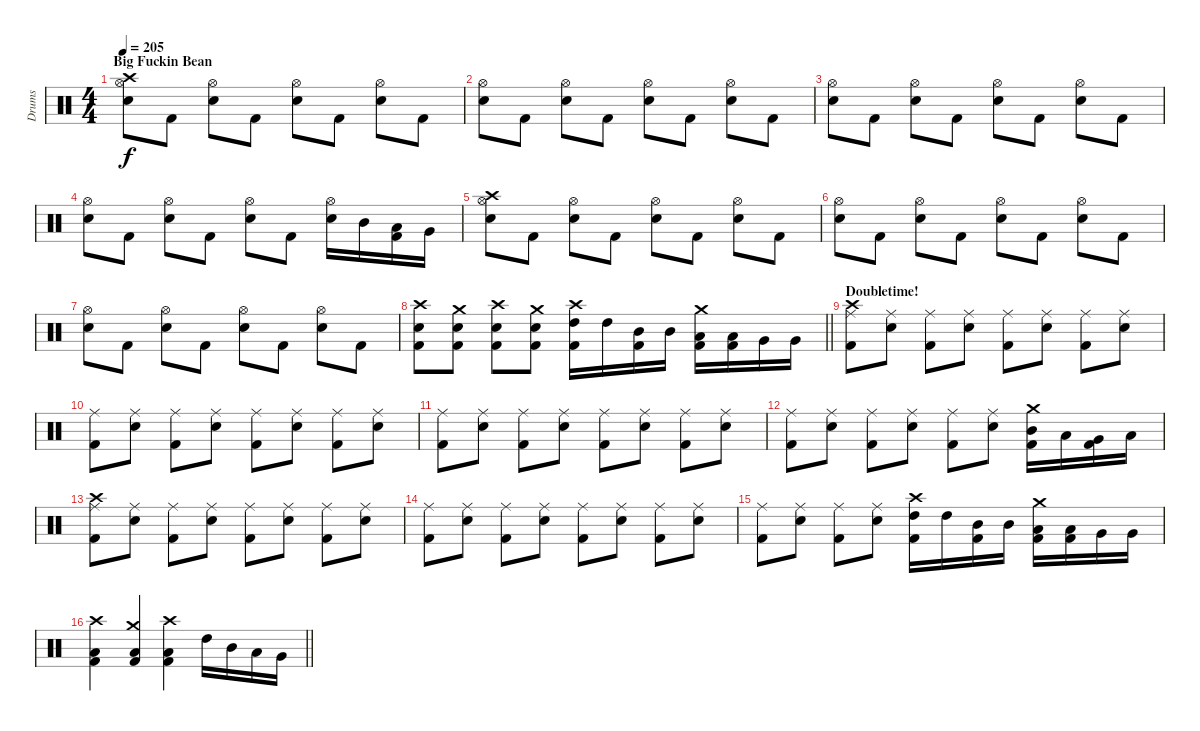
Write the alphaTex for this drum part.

\track ("Drums" "Drums") {instrument percussion}
\staff {score}
\articulation defaults
\ts (4 4)
\section ("" "Big Fuckin Bean")
\tempo 205
\clef neutral
\ks c
("Crash high (hit)" "Hi-Hat (open)" "Snare (hit) 2").8{dy f} "Kick (hit) 2".8 ("Hi-Hat (open)" "Snare (hit) 2").8 "Kick (hit) 2".8 ("Hi-Hat (open)" "Snare (hit) 2").8 "Kick (hit) 2".8 ("Hi-Hat (open)" "Snare (hit) 2").8 "Kick (hit) 2".8 |
("Hi-Hat (open)" "Snare (hit) 2").8 "Kick (hit) 2".8 ("Hi-Hat (open)" "Snare (hit) 2").8 "Kick (hit) 2".8 ("Hi-Hat (open)" "Snare (hit) 2").8 "Kick (hit) 2".8 ("Hi-Hat (open)" "Snare (hit) 2").8 "Kick (hit) 2".8 |
("Hi-Hat (open)" "Snare (hit) 2").8 "Kick (hit) 2".8 ("Hi-Hat (open)" "Snare (hit) 2").8 "Kick (hit) 2".8 ("Hi-Hat (open)" "Snare (hit) 2").8 "Kick (hit) 2".8 ("Hi-Hat (open)" "Snare (hit) 2").8 "Kick (hit) 2".8 |
("Hi-Hat (open)" "Snare (hit) 2").8 "Kick (hit) 2".8 ("Hi-Hat (open)" "Snare (hit) 2").8 "Kick (hit) 2".8 ("Hi-Hat (open)" "Snare (hit) 2").8 "Kick (hit) 2".8 ("Hi-Hat (open)" "Snare (hit) 2").16 "Mid Tom (hit)".16 ("Low Tom (hit)" "Kick (hit) 2").16 "Very Low Tom (hit)".16 |
("Crash high (hit)" "Hi-Hat (open)" "Snare (hit) 2").8 "Kick (hit) 2".8 ("Hi-Hat (open)" "Snare (hit) 2").8 "Kick (hit) 2".8 ("Hi-Hat (open)" "Snare (hit) 2").8 "Kick (hit) 2".8 ("Hi-Hat (open)" "Snare (hit) 2").8 "Kick (hit) 2".8 |
("Hi-Hat (open)" "Snare (hit) 2").8 "Kick (hit) 2".8 ("Hi-Hat (open)" "Snare (hit) 2").8 "Kick (hit) 2".8 ("Hi-Hat (open)" "Snare (hit) 2").8 "Kick (hit) 2".8 ("Hi-Hat (open)" "Snare (hit) 2").8 "Kick (hit) 2".8 |
("Hi-Hat (open)" "Snare (hit) 2").8 "Kick (hit) 2".8 ("Hi-Hat (open)" "Snare (hit) 2").8 "Kick (hit) 2".8 ("Hi-Hat (open)" "Snare (hit) 2").8 "Kick (hit) 2".8 ("Hi-Hat (open)" "Snare (hit) 2").8 "Kick (hit) 2".8 |
\barLineRight lightlight
("Crash high (hit)" "Snare (hit) 2" "Kick (hit) 2").8 ("Crash medium (hit)" "Snare (hit) 2" "Kick (hit) 2").8 ("Crash high (hit)" "Snare (hit) 2" "Kick (hit) 2").8 ("Crash medium (hit)" "Snare (hit) 2" "Kick (hit) 2").8 ("Crash high (hit)" "High Tom (hit)" "Kick (hit) 2").16 "High Tom (hit)".16 ("Mid Tom (hit)" "Kick (hit) 2").16 "Mid Tom (hit)".16 ("Crash medium (hit)" "Low Tom (hit)" "Kick (hit) 2").16 ("Low Tom (hit)" "Kick (hit) 2").16 "Very Low Tom (hit)".16 "Very Low Tom (hit)".16 |
\section ("" "Doubletime!")
("Crash high (hit)" "Ride (middle)" "Kick (hit) 2").8 ("Ride (middle)" "Snare (hit) 2").8 ("Ride (middle)" "Kick (hit) 2").8 ("Ride (middle)" "Snare (hit) 2").8 ("Ride (middle)" "Kick (hit) 2").8 ("Ride (middle)" "Snare (hit) 2").8 ("Ride (middle)" "Kick (hit) 2").8 ("Ride (middle)" "Snare (hit) 2").8 |
("Ride (middle)" "Kick (hit) 2").8 ("Ride (middle)" "Snare (hit) 2").8 ("Ride (middle)" "Kick (hit) 2").8 ("Ride (middle)" "Snare (hit) 2").8 ("Ride (middle)" "Kick (hit) 2").8 ("Ride (middle)" "Snare (hit) 2").8 ("Ride (middle)" "Kick (hit) 2").8 ("Ride (middle)" "Snare (hit) 2").8 |
("Ride (middle)" "Kick (hit) 2").8 ("Ride (middle)" "Snare (hit) 2").8 ("Ride (middle)" "Kick (hit) 2").8 ("Ride (middle)" "Snare (hit) 2").8 ("Ride (middle)" "Kick (hit) 2").8 ("Ride (middle)" "Snare (hit) 2").8 ("Ride (middle)" "Kick (hit) 2").8 ("Ride (middle)" "Snare (hit) 2").8 |
("Ride (middle)" "Kick (hit) 2").8 ("Ride (middle)" "Snare (hit) 2").8 ("Ride (middle)" "Kick (hit) 2").8 ("Ride (middle)" "Snare (hit) 2").8 ("Ride (middle)" "Kick (hit) 2").8 ("Ride (middle)" "Snare (hit) 2").8 ("Crash medium (hit)" "Mid Tom (hit)" "Kick (hit) 2").16 "Low Tom (hit)".16 ("Very Low Tom (hit)" "Kick (hit) 2").16 "Low Floor Tom (hit)".16 |
("Crash high (hit)" "Ride (middle)" "Kick (hit) 2").8 ("Ride (middle)" "Snare (hit) 2").8 ("Ride (middle)" "Kick (hit) 2").8 ("Ride (middle)" "Snare (hit) 2").8 ("Ride (middle)" "Kick (hit) 2").8 ("Ride (middle)" "Snare (hit) 2").8 ("Ride (middle)" "Kick (hit) 2").8 ("Ride (middle)" "Snare (hit) 2").8 |
("Ride (middle)" "Kick (hit) 2").8 ("Ride (middle)" "Snare (hit) 2").8 ("Ride (middle)" "Kick (hit) 2").8 ("Ride (middle)" "Snare (hit) 2").8 ("Ride (middle)" "Kick (hit) 2").8 ("Ride (middle)" "Snare (hit) 2").8 ("Ride (middle)" "Kick (hit) 2").8 ("Ride (middle)" "Snare (hit) 2").8 |
("Ride (middle)" "Kick (hit) 2").8 ("Ride (middle)" "Snare (hit) 2").8 ("Ride (middle)" "Kick (hit) 2").8 ("Ride (middle)" "Snare (hit) 2").8 ("Crash high (hit)" "High Tom (hit)" "Kick (hit) 2").16 "High Tom (hit)".16 ("Mid Tom (hit)" "Kick (hit) 2").16 "Mid Tom (hit)".16 ("Crash medium (hit)" "Low Tom (hit)" "Kick (hit) 2").16 ("Low Tom (hit)" "Kick (hit) 2").16 "Very Low Tom (hit)".16 "Very Low Tom (hit)".16 |
\barLineRight lightlight
("Crash high (hit)" "Low Floor Tom (hit)" "Kick (hit) 2").4 ("Crash medium (hit)" "Low Floor Tom (hit)" "Kick (hit) 2").4 ("Crash high (hit)" "Low Floor Tom (hit)" "Kick (hit) 2").4 "High Tom (hit)".16 "Mid Tom (hit)".16 "Low Tom (hit)".16 "Very Low Tom (hit)".16
